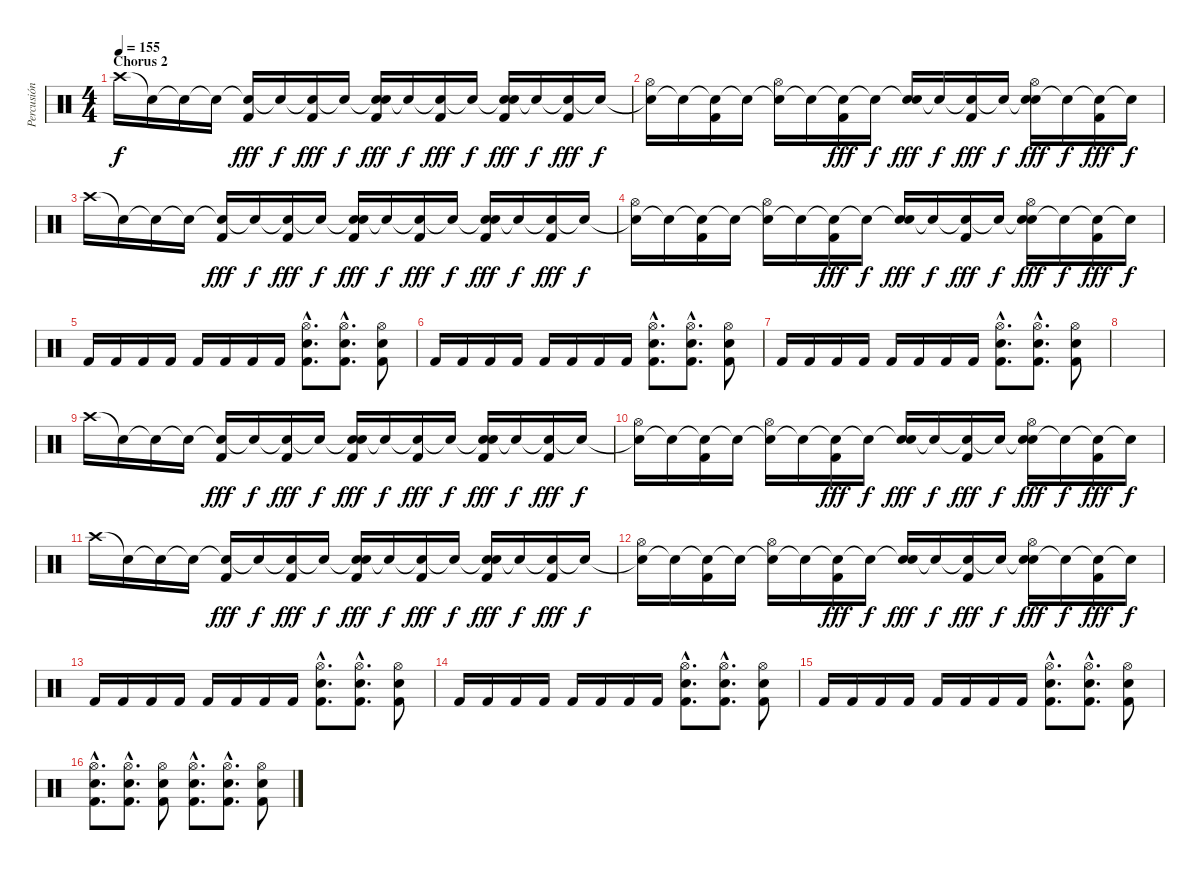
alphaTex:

\track ("Percusión" "Percusión") {instrument percussion}
\staff {score}
\articulation defaults
\ts (4 4)
\section ("" "Chorus 2")
\tempo 155
\clef neutral
\ks c "Crash high (hit)".16{dy f} "Snare (hit)"{t}.16 "Snare (hit)"{t}.16 "Snare (hit)"{t}.16
("Snare (hit)"{t} "Kick (hit) 2").16{dy fff} "Snare (hit)"{t}.16{dy f} ("Snare (hit)"{t} "Kick (hit) 2").16{dy fff} "Snare (hit)"{t}.16{dy f} ("Snare (hit)"{t} "Electric Snare (hit)" "Kick (hit) 2").16{dy fff} "Snare (hit)"{t}.16{dy f} ("Snare (hit)"{t} "Kick (hit) 2").16{dy fff} "Snare (hit)"{t}.16{dy f} ("Snare (hit)"{t} "Electric Snare (hit)" "Kick (hit) 2").16{dy fff} "Snare (hit)"{t}.16{dy f} ("Snare (hit)"{t} "Kick (hit) 2").16{dy fff} "Snare (hit)"{t}.16{dy f} |
("Snare (hit)"{t} "Hi-Hat (open)").16 "Snare (hit)"{t}.16 ("Snare (hit)"{t} "Kick (hit) 2").16 "Snare (hit)"{t}.16 ("Snare (hit)"{t} "Hi-Hat (open)").16 "Snare (hit)"{t}.16 ("Snare (hit)"{t} "Kick (hit) 2").16{dy fff} "Snare (hit)"{t}.16{dy f} ("Snare (hit)"{t} "Electric Snare (hit)").16{dy fff} "Snare (hit)"{t}.16{dy f} ("Snare (hit)"{t} "Kick (hit) 2").16{dy fff} "Snare (hit)"{t}.16{dy f} ("Snare (hit)"{t} "Electric Snare (hit)" "Hi-Hat (open)").16{dy fff} "Snare (hit)"{t}.16{dy f} ("Snare (hit)"{t} "Kick (hit) 2").16{dy fff} "Snare (hit)"{t}.16{dy f} |
"Crash high (hit)".16 "Snare (hit)"{t}.16 "Snare (hit)"{t}.16 "Snare (hit)"{t}.16 ("Snare (hit)"{t} "Kick (hit) 2").16{dy fff} "Snare (hit)"{t}.16{dy f} ("Snare (hit)"{t} "Kick (hit) 2").16{dy fff} "Snare (hit)"{t}.16{dy f} ("Snare (hit)"{t} "Electric Snare (hit)" "Kick (hit) 2").16{dy fff} "Snare (hit)"{t}.16{dy f} ("Snare (hit)"{t} "Kick (hit) 2").16{dy fff} "Snare (hit)"{t}.16{dy f} ("Snare (hit)"{t} "Electric Snare (hit)" "Kick (hit) 2").16{dy fff} "Snare (hit)"{t}.16{dy f} ("Snare (hit)"{t} "Kick (hit) 2").16{dy fff} "Snare (hit)"{t}.16{dy f} |
("Snare (hit)"{t} "Hi-Hat (open)").16 "Snare (hit)"{t}.16 ("Snare (hit)"{t} "Kick (hit) 2").16 "Snare (hit)"{t}.16 ("Snare (hit)"{t} "Hi-Hat (open)").16 "Snare (hit)"{t}.16 ("Snare (hit)"{t} "Kick (hit) 2").16{dy fff} "Snare (hit)"{t}.16{dy f} ("Snare (hit)"{t} "Electric Snare (hit)").16{dy fff} "Snare (hit)"{t}.16{dy f} ("Snare (hit)"{t} "Kick (hit) 2").16{dy fff} "Snare (hit)"{t}.16{dy f} ("Snare (hit)"{t} "Electric Snare (hit)" "Hi-Hat (open)").16{dy fff} "Snare (hit)"{t}.16{dy f} ("Snare (hit)"{t} "Kick (hit) 2").16{dy fff} "Snare (hit)"{t}.16{dy f} |
"Kick (hit) 2".16 "Kick (hit) 2".16 "Kick (hit) 2".16 "Kick (hit) 2".16 "Kick (hit) 2".16 "Kick (hit) 2".16 "Kick (hit) 2".16 "Kick (hit) 2".16 ("Hi-Hat (open)"{hac} "Electric Snare (hit)"{hac} "Kick (hit) 2"{hac}).8{d} ("Hi-Hat (open)"{hac} "Electric Snare (hit)"{hac} "Kick (hit) 2"{hac}).8{d} ("Hi-Hat (open)" "Electric Snare (hit)" "Kick (hit) 2").8 |
"Kick (hit) 2".16 "Kick (hit) 2".16 "Kick (hit) 2".16 "Kick (hit) 2".16 "Kick (hit) 2".16 "Kick (hit) 2".16 "Kick (hit) 2".16 "Kick (hit) 2".16 ("Hi-Hat (open)"{hac} "Electric Snare (hit)"{hac} "Kick (hit) 2"{hac}).8{d} ("Hi-Hat (open)"{hac} "Electric Snare (hit)"{hac} "Kick (hit) 2"{hac}).8{d} ("Hi-Hat (open)" "Electric Snare (hit)" "Kick (hit) 2").8 |
"Kick (hit) 2".16 "Kick (hit) 2".16 "Kick (hit) 2".16 "Kick (hit) 2".16 "Kick (hit) 2".16 "Kick (hit) 2".16 "Kick (hit) 2".16 "Kick (hit) 2".16 ("Hi-Hat (open)"{hac} "Electric Snare (hit)"{hac} "Kick (hit) 2"{hac}).8{d} ("Hi-Hat (open)"{hac} "Electric Snare (hit)"{hac} "Kick (hit) 2"{hac}).8{d} ("Hi-Hat (open)" "Electric Snare (hit)" "Kick (hit) 2").8 |
|
"Crash high (hit)".16 "Snare (hit)"{t}.16 "Snare (hit)"{t}.16 "Snare (hit)"{t}.16 ("Snare (hit)"{t} "Kick (hit) 2").16{dy fff} "Snare (hit)"{t}.16{dy f} ("Snare (hit)"{t} "Kick (hit) 2").16{dy fff} "Snare (hit)"{t}.16{dy f} ("Snare (hit)"{t} "Electric Snare (hit)" "Kick (hit) 2").16{dy fff} "Snare (hit)"{t}.16{dy f} ("Snare (hit)"{t} "Kick (hit) 2").16{dy fff} "Snare (hit)"{t}.16{dy f} ("Snare (hit)"{t} "Electric Snare (hit)" "Kick (hit) 2").16{dy fff} "Snare (hit)"{t}.16{dy f} ("Snare (hit)"{t} "Kick (hit) 2").16{dy fff} "Snare (hit)"{t}.16{dy f} |
("Snare (hit)"{t} "Hi-Hat (open)").16 "Snare (hit)"{t}.16 ("Snare (hit)"{t} "Kick (hit) 2").16 "Snare (hit)"{t}.16 ("Snare (hit)"{t} "Hi-Hat (open)").16 "Snare (hit)"{t}.16 ("Snare (hit)"{t} "Kick (hit) 2").16{dy fff} "Snare (hit)"{t}.16{dy f} ("Snare (hit)"{t} "Electric Snare (hit)").16{dy fff} "Snare (hit)"{t}.16{dy f} ("Snare (hit)"{t} "Kick (hit) 2").16{dy fff} "Snare (hit)"{t}.16{dy f} ("Snare (hit)"{t} "Electric Snare (hit)" "Hi-Hat (open)").16{dy fff} "Snare (hit)"{t}.16{dy f} ("Snare (hit)"{t} "Kick (hit) 2").16{dy fff} "Snare (hit)"{t}.16{dy f} |
"Crash high (hit)".16 "Snare (hit)"{t}.16 "Snare (hit)"{t}.16 "Snare (hit)"{t}.16 ("Snare (hit)"{t} "Kick (hit) 2").16{dy fff} "Snare (hit)"{t}.16{dy f} ("Snare (hit)"{t} "Kick (hit) 2").16{dy fff} "Snare (hit)"{t}.16{dy f} ("Snare (hit)"{t} "Electric Snare (hit)" "Kick (hit) 2").16{dy fff} "Snare (hit)"{t}.16{dy f} ("Snare (hit)"{t} "Kick (hit) 2").16{dy fff} "Snare (hit)"{t}.16{dy f} ("Snare (hit)"{t} "Electric Snare (hit)" "Kick (hit) 2").16{dy fff} "Snare (hit)"{t}.16{dy f} ("Snare (hit)"{t} "Kick (hit) 2").16{dy fff} "Snare (hit)"{t}.16{dy f} |
("Snare (hit)"{t} "Hi-Hat (open)").16 "Snare (hit)"{t}.16 ("Snare (hit)"{t} "Kick (hit) 2").16 "Snare (hit)"{t}.16 ("Snare (hit)"{t} "Hi-Hat (open)").16 "Snare (hit)"{t}.16 ("Snare (hit)"{t} "Kick (hit) 2").16{dy fff} "Snare (hit)"{t}.16{dy f} ("Snare (hit)"{t} "Electric Snare (hit)").16{dy fff} "Snare (hit)"{t}.16{dy f} ("Snare (hit)"{t} "Kick (hit) 2").16{dy fff} "Snare (hit)"{t}.16{dy f} ("Snare (hit)"{t} "Electric Snare (hit)" "Hi-Hat (open)").16{dy fff} "Snare (hit)"{t}.16{dy f} ("Snare (hit)"{t} "Kick (hit) 2").16{dy fff} "Snare (hit)"{t}.16{dy f} |
"Kick (hit) 2".16 "Kick (hit) 2".16 "Kick (hit) 2".16 "Kick (hit) 2".16 "Kick (hit) 2".16 "Kick (hit) 2".16 "Kick (hit) 2".16 "Kick (hit) 2".16 ("Hi-Hat (open)"{hac} "Electric Snare (hit)"{hac} "Kick (hit) 2"{hac}).8{d} ("Hi-Hat (open)"{hac} "Electric Snare (hit)"{hac} "Kick (hit) 2"{hac}).8{d} ("Hi-Hat (open)" "Electric Snare (hit)" "Kick (hit) 2").8 |
"Kick (hit) 2".16 "Kick (hit) 2".16 "Kick (hit) 2".16 "Kick (hit) 2".16 "Kick (hit) 2".16 "Kick (hit) 2".16 "Kick (hit) 2".16 "Kick (hit) 2".16 ("Hi-Hat (open)"{hac} "Electric Snare (hit)"{hac} "Kick (hit) 2"{hac}).8{d} ("Hi-Hat (open)"{hac} "Electric Snare (hit)"{hac} "Kick (hit) 2"{hac}).8{d} ("Hi-Hat (open)" "Electric Snare (hit)" "Kick (hit) 2").8 |
"Kick (hit) 2".16 "Kick (hit) 2".16 "Kick (hit) 2".16 "Kick (hit) 2".16 "Kick (hit) 2".16 "Kick (hit) 2".16 "Kick (hit) 2".16 "Kick (hit) 2".16 ("Hi-Hat (open)"{hac} "Electric Snare (hit)"{hac} "Kick (hit) 2"{hac}).8{d} ("Hi-Hat (open)"{hac} "Electric Snare (hit)"{hac} "Kick (hit) 2"{hac}).8{d} ("Hi-Hat (open)" "Electric Snare (hit)" "Kick (hit) 2").8 |
("Hi-Hat (open)"{hac} "Electric Snare (hit)"{hac} "Kick (hit) 2"{hac}).8{d} ("Hi-Hat (open)"{hac} "Electric Snare (hit)"{hac} "Kick (hit) 2"{hac}).8{d} ("Hi-Hat (open)" "Electric Snare (hit)" "Kick (hit) 2").8 ("Hi-Hat (open)"{hac} "Electric Snare (hit)"{hac} "Kick (hit) 2"{hac}).8{d} ("Hi-Hat (open)"{hac} "Electric Snare (hit)"{hac} "Kick (hit) 2"{hac}).8{d} ("Hi-Hat (open)" "Electric Snare (hit)" "Kick (hit) 2").8
